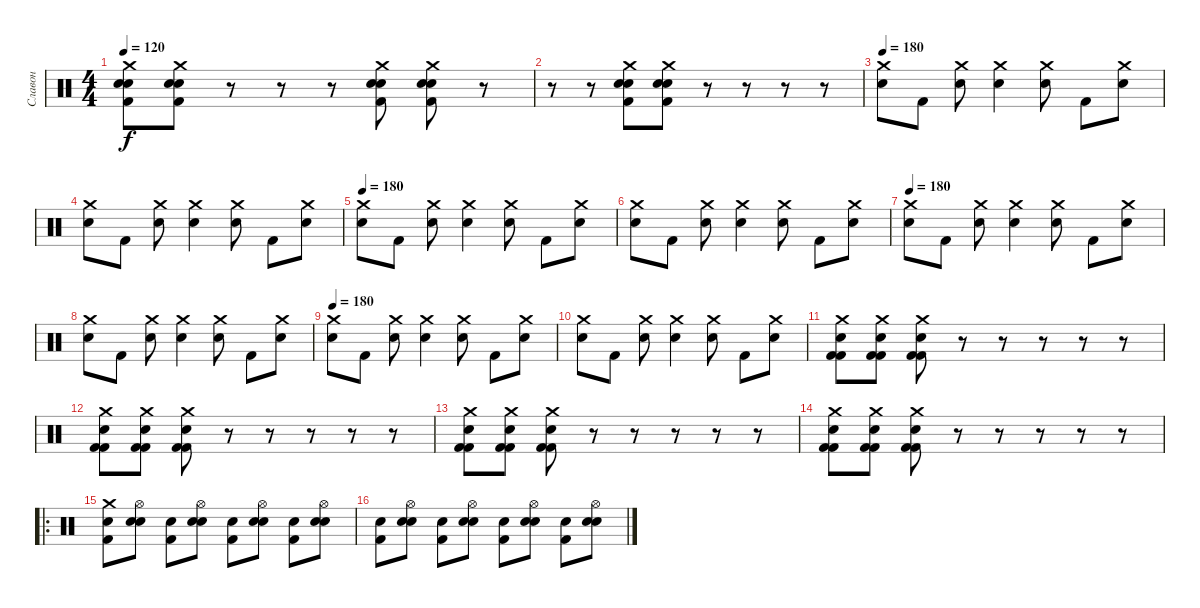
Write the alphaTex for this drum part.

\track ("Славон" "Славон") {instrument percussion}
\staff {score}
\articulation defaults
\ts (4 4)
\tempo 120
\clef neutral
\ks c
("Electric Snare (hit)" "Snare (hit) 2" "Kick (hit) 2" "Crash medium (hit)").8{dy f} ("Electric Snare (hit)" "Snare (hit) 2" "Kick (hit) 2" "Crash medium (hit)").8 r.8 r.8 r.8 ("Electric Snare (hit)" "Snare (hit) 2" "Kick (hit) 2" "Crash medium (hit)").8 ("Electric Snare (hit)" "Snare (hit) 2" "Kick (hit) 2" "Crash medium (hit)").8 r.8 |
r.8 r.8 ("Electric Snare (hit)" "Snare (hit) 2" "Kick (hit) 2" "Crash medium (hit)").8 ("Electric Snare (hit)" "Snare (hit) 2" "Kick (hit) 2" "Crash medium (hit)").8 r.8 r.8 r.8 r.8 |
\tempo 160
\tempo 180
("Electric Snare (hit)" "Crash medium (hit)").8 "Kick (hit) 2".8 ("Electric Snare (hit)" "Crash medium (hit)").8 ("Electric Snare (hit)" "Crash medium (hit)").4 ("Electric Snare (hit)" "Crash medium (hit)").8 "Kick (hit) 2".8 ("Electric Snare (hit)" "Crash medium (hit)").8 |
("Electric Snare (hit)" "Crash medium (hit)").8 "Kick (hit) 2".8 ("Electric Snare (hit)" "Crash medium (hit)").8 ("Electric Snare (hit)" "Crash medium (hit)").4 ("Electric Snare (hit)" "Crash medium (hit)").8 "Kick (hit) 2".8 ("Electric Snare (hit)" "Crash medium (hit)").8 |
\tempo 175
\tempo 180
("Electric Snare (hit)" "Crash medium (hit)").8 "Kick (hit) 2".8 ("Electric Snare (hit)" "Crash medium (hit)").8 ("Electric Snare (hit)" "Crash medium (hit)").4 ("Electric Snare (hit)" "Crash medium (hit)").8 "Kick (hit) 2".8 ("Electric Snare (hit)" "Crash medium (hit)").8 |
("Electric Snare (hit)" "Crash medium (hit)").8 "Kick (hit) 2".8 ("Electric Snare (hit)" "Crash medium (hit)").8 ("Electric Snare (hit)" "Crash medium (hit)").4 ("Electric Snare (hit)" "Crash medium (hit)").8 "Kick (hit) 2".8 ("Electric Snare (hit)" "Crash medium (hit)").8 |
\tempo 180
("Electric Snare (hit)" "Crash medium (hit)").8 "Kick (hit) 2".8 ("Electric Snare (hit)" "Crash medium (hit)").8 ("Electric Snare (hit)" "Crash medium (hit)").4 ("Electric Snare (hit)" "Crash medium (hit)").8 "Kick (hit) 2".8 ("Electric Snare (hit)" "Crash medium (hit)").8 |
("Electric Snare (hit)" "Crash medium (hit)").8 "Kick (hit) 2".8 ("Electric Snare (hit)" "Crash medium (hit)").8 ("Electric Snare (hit)" "Crash medium (hit)").4 ("Electric Snare (hit)" "Crash medium (hit)").8 "Kick (hit) 2".8 ("Electric Snare (hit)" "Crash medium (hit)").8 |
\tempo 180
("Electric Snare (hit)" "Crash medium (hit)").8 "Kick (hit) 2".8 ("Electric Snare (hit)" "Crash medium (hit)").8 ("Electric Snare (hit)" "Crash medium (hit)").4 ("Electric Snare (hit)" "Crash medium (hit)").8 "Kick (hit) 2".8 ("Electric Snare (hit)" "Crash medium (hit)").8 |
("Electric Snare (hit)" "Crash medium (hit)").8 "Kick (hit) 2".8 ("Electric Snare (hit)" "Crash medium (hit)").8 ("Electric Snare (hit)" "Crash medium (hit)").4 ("Electric Snare (hit)" "Crash medium (hit)").8 "Kick (hit) 2".8 ("Electric Snare (hit)" "Crash medium (hit)").8 |
("Electric Snare (hit)" "Kick (hit) 2" "Kick (hit) 2" "Crash medium (hit)").8 ("Electric Snare (hit)" "Kick (hit) 2" "Kick (hit) 2" "Crash medium (hit)").8 ("Electric Snare (hit)" "Kick (hit) 2" "Kick (hit) 2" "Crash medium (hit)").8 r.8 r.8 r.8 r.8 r.8 |
("Electric Snare (hit)" "Kick (hit) 2" "Kick (hit) 2" "Crash medium (hit)").8 ("Electric Snare (hit)" "Kick (hit) 2" "Kick (hit) 2" "Crash medium (hit)").8 ("Electric Snare (hit)" "Kick (hit) 2" "Kick (hit) 2" "Crash medium (hit)").8 r.8 r.8 r.8 r.8 r.8 |
("Electric Snare (hit)" "Kick (hit) 2" "Kick (hit) 2" "Crash medium (hit)").8 ("Electric Snare (hit)" "Kick (hit) 2" "Kick (hit) 2" "Crash medium (hit)").8 ("Electric Snare (hit)" "Kick (hit) 2" "Kick (hit) 2" "Crash medium (hit)").8 r.8 r.8 r.8 r.8 r.8 |
("Electric Snare (hit)" "Kick (hit) 2" "Kick (hit) 2" "Crash medium (hit)").8 ("Electric Snare (hit)" "Kick (hit) 2" "Kick (hit) 2" "Crash medium (hit)").8 ("Electric Snare (hit)" "Kick (hit) 2" "Kick (hit) 2" "Crash medium (hit)").8 r.8 r.8 r.8 r.8 r.8 |
\ro
("Crash medium (hit)" "Snare (hit) 2" "Kick (hit) 2").8 ("Hi-Hat (open)" "Electric Snare (hit)" "Electric Snare (hit)").8 ("Snare (hit) 2" "Kick (hit) 2").8 ("Hi-Hat (open)" "Electric Snare (hit)" "Electric Snare (hit)").8 ("Snare (hit) 2" "Kick (hit) 2").8 ("Hi-Hat (open)" "Electric Snare (hit)" "Electric Snare (hit)").8 ("Snare (hit) 2" "Kick (hit) 2").8 ("Hi-Hat (open)" "Electric Snare (hit)" "Electric Snare (hit)").8 |
("Snare (hit) 2" "Kick (hit) 2").8 ("Hi-Hat (open)" "Electric Snare (hit)" "Electric Snare (hit)").8 ("Snare (hit) 2" "Kick (hit) 2").8 ("Hi-Hat (open)" "Electric Snare (hit)" "Electric Snare (hit)").8 ("Snare (hit) 2" "Kick (hit) 2").8 ("Hi-Hat (open)" "Electric Snare (hit)" "Electric Snare (hit)").8 ("Snare (hit) 2" "Kick (hit) 2").8 ("Hi-Hat (open)" "Electric Snare (hit)" "Electric Snare (hit)").8
